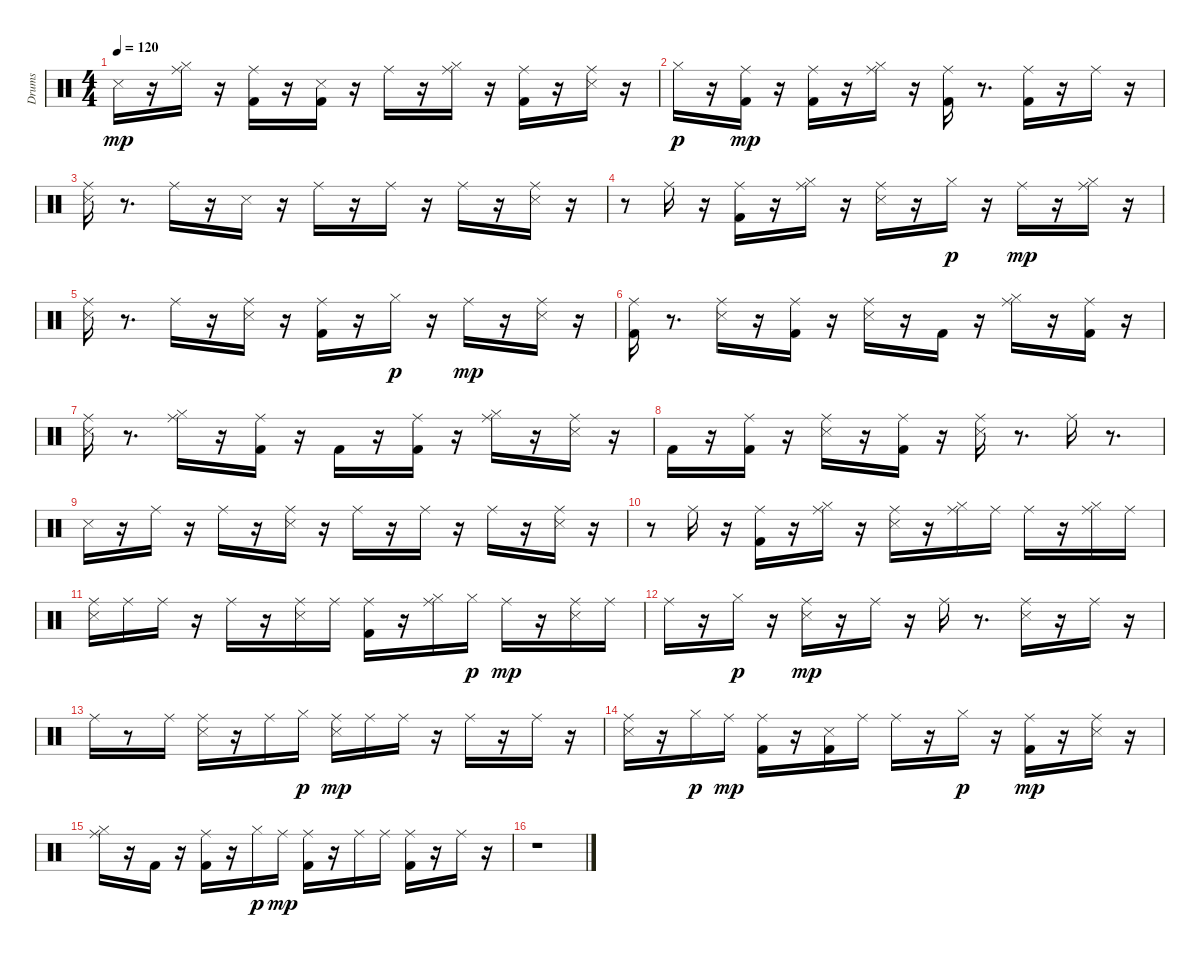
\track ("Drums  " "Drums  ") {instrument percussion}
\staff {score}
\articulation defaults
\ts (4 4)
\tempo 120
\clef neutral
\ks c "Snare (side stick) 3".16{dy mp}
r.16 ("Hi-Hat (closed)" "Ride (middle)").16 r.16 ("Kick (hit) 2" "Ride (middle)").16 r.16 ("Snare (side stick) 3" "Kick (hit) 2").16 r.16 "Ride (middle)".16 r.16 ("Hi-Hat (closed)" "Ride (middle)").16 r.16 ("Kick (hit) 2" "Ride (middle)").16 r.16 ("Snare (side stick) 3" "Ride (middle)").16 r.16 |
"Hi-Hat (closed)".16{dy p} r.16 ("Kick (hit) 2" "Ride (middle)").16{dy mp} r.16 ("Kick (hit) 2" "Ride (middle)").16 r.16 ("Hi-Hat (closed)" "Ride (middle)").16 r.16 ("Kick (hit) 2" "Ride (middle)").16 r.8{d} ("Kick (hit) 2" "Ride (middle)").16 r.16 "Ride (middle)".16 r.16 |
("Snare (side stick) 3" "Ride (middle)").16 r.8{d} "Ride (middle)".16 r.16 "Snare (side stick) 3".16 r.16 "Ride (middle)".16 r.16 "Ride (middle)".16 r.16 "Ride (middle)".16 r.16 ("Snare (side stick) 3" "Ride (middle)").16 r.16 |
r.8 "Ride (middle)".16 r.16 ("Kick (hit) 2" "Ride (middle)").16 r.16 ("Hi-Hat (closed)" "Ride (middle)").16 r.16 ("Snare (side stick) 3" "Ride (middle)").16 r.16 "Hi-Hat (closed)".16{dy p} r.16 "Ride (middle)".16{dy mp} r.16 ("Hi-Hat (closed)" "Ride (middle)").16 r.16 |
("Snare (side stick) 3" "Ride (middle)").16 r.8{d} "Ride (middle)".16 r.16 ("Snare (side stick) 3" "Ride (middle)").16 r.16 ("Kick (hit) 2" "Ride (middle)").16 r.16 "Hi-Hat (closed)".16{dy p} r.16 "Ride (middle)".16{dy mp} r.16 ("Snare (side stick) 3" "Ride (middle)").16 r.16 |
("Kick (hit) 2" "Ride (middle)").16 r.8{d} ("Snare (side stick) 3" "Ride (middle)").16 r.16 ("Kick (hit) 2" "Ride (middle)").16 r.16 ("Snare (side stick) 3" "Ride (middle)").16 r.16 "Kick (hit) 2".16 r.16 ("Hi-Hat (closed)" "Ride (middle)").16 r.16 ("Kick (hit) 2" "Ride (middle)").16 r.16 |
("Snare (side stick) 3" "Ride (middle)").16 r.8{d} ("Hi-Hat (closed)" "Ride (middle)").16 r.16 ("Kick (hit) 2" "Ride (middle)").16 r.16 "Kick (hit) 2".16 r.16 ("Kick (hit) 2" "Ride (middle)").16 r.16 ("Hi-Hat (closed)" "Ride (middle)").16 r.16 ("Snare (side stick) 3" "Ride (middle)").16 r.16 |
"Kick (hit) 2".16 r.16 ("Kick (hit) 2" "Ride (middle)").16 r.16 ("Snare (side stick) 3" "Ride (middle)").16 r.16 ("Kick (hit) 2" "Ride (middle)").16 r.16 ("Snare (side stick) 3" "Ride (middle)").16 r.8{d} "Ride (middle)".16 r.8{d} |
"Snare (side stick) 3".16 r.16 "Ride (middle)".16 r.16 "Ride (middle)".16 r.16 ("Snare (side stick) 3" "Ride (middle)").16 r.16 "Ride (middle)".16 r.16 "Ride (middle)".16 r.16 "Ride (middle)".16 r.16 ("Snare (side stick) 3" "Ride (middle)").16 r.16 |
r.8 "Ride (middle)".16 r.16 ("Kick (hit) 2" "Ride (middle)").16 r.16 ("Hi-Hat (closed)" "Ride (middle)").16 r.16 ("Snare (side stick) 3" "Ride (middle)").16 r.16 ("Hi-Hat (closed)" "Ride (middle)").16 "Ride (middle)".16 "Ride (middle)".16 r.16 ("Hi-Hat (closed)" "Ride (middle)").16 "Ride (middle)".16 |
("Snare (side stick) 3" "Ride (middle)").16 "Ride (middle)".16 "Ride (middle)".16 r.16 "Ride (middle)".16 r.16 ("Snare (side stick) 3" "Ride (middle)").16 "Ride (middle)".16 ("Kick (hit) 2" "Ride (middle)").16 r.16 ("Hi-Hat (closed)" "Ride (middle)").16 "Hi-Hat (closed)".16{dy p} "Ride (middle)".16{dy mp} r.16 ("Snare (side stick) 3" "Ride (middle)").16 "Ride (middle)".16 |
"Ride (middle)".16 r.16 "Hi-Hat (closed)".16{dy p} r.16 ("Snare (side stick) 3" "Ride (middle)").16{dy mp} r.16 "Ride (middle)".16 r.16 "Ride (middle)".16 r.8{d} ("Snare (side stick) 3" "Ride (middle)").16 r.16 "Ride (middle)".16 r.16 |
"Ride (middle)".16 r.8 "Ride (middle)".16 ("Snare (side stick) 3" "Ride (middle)").16 r.16 "Ride (middle)".16 "Hi-Hat (closed)".16{dy p} ("Snare (side stick) 3" "Ride (middle)").16{dy mp} "Ride (middle)".16 "Ride (middle)".16 r.16 "Ride (middle)".16 r.16 "Ride (middle)".16 r.16 |
("Snare (side stick) 3" "Ride (middle)").16 r.16 "Hi-Hat (closed)".16{dy p} "Ride (middle)".16{dy mp} ("Kick (hit) 2" "Ride (middle)").16 r.16 ("Snare (side stick) 3" "Kick (hit) 2").16 "Ride (middle)".16 "Ride (middle)".16 r.16 "Hi-Hat (closed)".16{dy p} r.16 ("Kick (hit) 2" "Ride (middle)").16{dy mp} r.16 ("Snare (side stick) 3" "Ride (middle)").16 r.16 |
("Hi-Hat (closed)" "Ride (middle)").16 r.16 "Kick (hit) 2".16 r.16 ("Kick (hit) 2" "Ride (middle)").16 r.16 "Hi-Hat (closed)".16{dy p} "Ride (middle)".16{dy mp} ("Kick (hit) 2" "Ride (middle)").16 r.16 "Ride (middle)".16 "Ride (middle)".16 ("Kick (hit) 2" "Ride (middle)").16 r.16 "Ride (middle)".16 r.16 |
r.1
